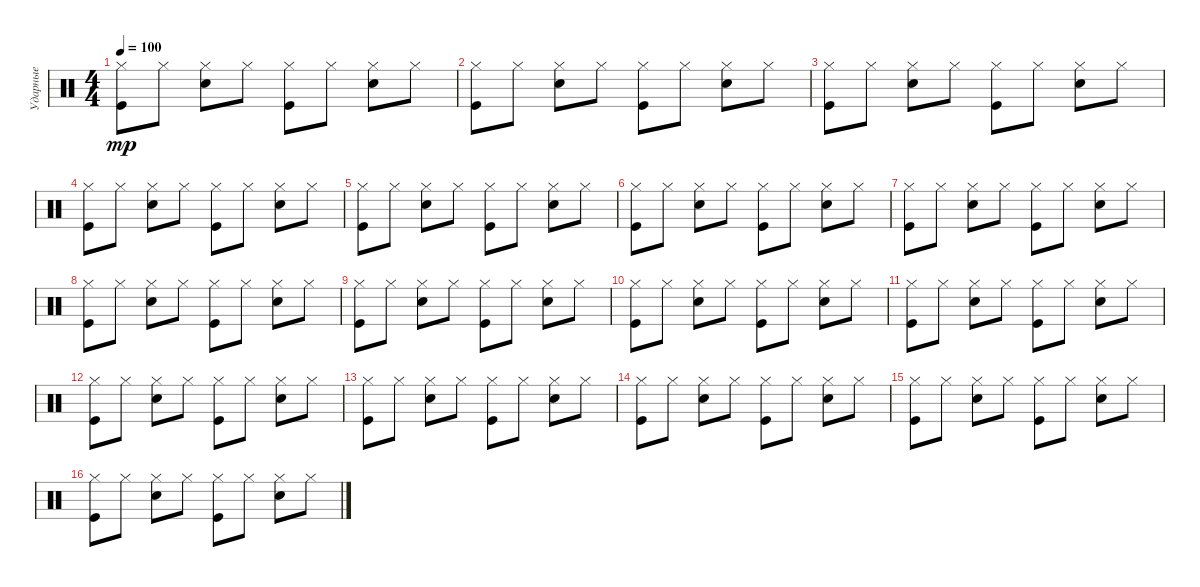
\track ("Ударные" "Ударные") {instrument percussion}
\staff {score}
\articulation defaults
\ts (4 4)
\tempo 100
\clef neutral
\ks c
("Hi-Hat (closed)" "Kick (hit)").8{dy mp} "Hi-Hat (closed)".8 ("Hi-Hat (closed)" "Snare (hit) 2").8 "Hi-Hat (closed)".8 ("Hi-Hat (closed)" "Kick (hit)").8 "Hi-Hat (closed)".8 ("Hi-Hat (closed)" "Snare (hit) 2").8 "Hi-Hat (closed)".8 |
("Hi-Hat (closed)" "Kick (hit)").8 "Hi-Hat (closed)".8 ("Hi-Hat (closed)" "Snare (hit) 2").8 "Hi-Hat (closed)".8 ("Hi-Hat (closed)" "Kick (hit)").8 "Hi-Hat (closed)".8 ("Hi-Hat (closed)" "Snare (hit) 2").8 "Hi-Hat (closed)".8 |
("Hi-Hat (closed)" "Kick (hit)").8 "Hi-Hat (closed)".8 ("Hi-Hat (closed)" "Snare (hit) 2").8 "Hi-Hat (closed)".8 ("Hi-Hat (closed)" "Kick (hit)").8 "Hi-Hat (closed)".8 ("Hi-Hat (closed)" "Snare (hit) 2").8 "Hi-Hat (closed)".8 |
("Hi-Hat (closed)" "Kick (hit)").8 "Hi-Hat (closed)".8 ("Hi-Hat (closed)" "Snare (hit) 2").8 "Hi-Hat (closed)".8 ("Hi-Hat (closed)" "Kick (hit)").8 "Hi-Hat (closed)".8 ("Hi-Hat (closed)" "Snare (hit) 2").8 "Hi-Hat (closed)".8 |
("Hi-Hat (closed)" "Kick (hit)").8 "Hi-Hat (closed)".8 ("Hi-Hat (closed)" "Snare (hit) 2").8 "Hi-Hat (closed)".8 ("Hi-Hat (closed)" "Kick (hit)").8 "Hi-Hat (closed)".8 ("Hi-Hat (closed)" "Snare (hit) 2").8 "Hi-Hat (closed)".8 |
("Hi-Hat (closed)" "Kick (hit)").8 "Hi-Hat (closed)".8 ("Hi-Hat (closed)" "Snare (hit) 2").8 "Hi-Hat (closed)".8 ("Hi-Hat (closed)" "Kick (hit)").8 "Hi-Hat (closed)".8 ("Hi-Hat (closed)" "Snare (hit) 2").8 "Hi-Hat (closed)".8 |
("Hi-Hat (closed)" "Kick (hit)").8 "Hi-Hat (closed)".8 ("Hi-Hat (closed)" "Snare (hit) 2").8 "Hi-Hat (closed)".8 ("Hi-Hat (closed)" "Kick (hit)").8 "Hi-Hat (closed)".8 ("Hi-Hat (closed)" "Snare (hit) 2").8 "Hi-Hat (closed)".8 |
("Hi-Hat (closed)" "Kick (hit)").8 "Hi-Hat (closed)".8 ("Hi-Hat (closed)" "Snare (hit) 2").8 "Hi-Hat (closed)".8 ("Hi-Hat (closed)" "Kick (hit)").8 "Hi-Hat (closed)".8 ("Hi-Hat (closed)" "Snare (hit) 2").8 "Hi-Hat (closed)".8 |
("Hi-Hat (closed)" "Kick (hit)").8 "Hi-Hat (closed)".8 ("Hi-Hat (closed)" "Snare (hit) 2").8 "Hi-Hat (closed)".8 ("Hi-Hat (closed)" "Kick (hit)").8 "Hi-Hat (closed)".8 ("Hi-Hat (closed)" "Snare (hit) 2").8 "Hi-Hat (closed)".8 |
("Hi-Hat (closed)" "Kick (hit)").8 "Hi-Hat (closed)".8 ("Hi-Hat (closed)" "Snare (hit) 2").8 "Hi-Hat (closed)".8 ("Hi-Hat (closed)" "Kick (hit)").8 "Hi-Hat (closed)".8 ("Hi-Hat (closed)" "Snare (hit) 2").8 "Hi-Hat (closed)".8 |
("Hi-Hat (closed)" "Kick (hit)").8 "Hi-Hat (closed)".8 ("Hi-Hat (closed)" "Snare (hit) 2").8 "Hi-Hat (closed)".8 ("Hi-Hat (closed)" "Kick (hit)").8 "Hi-Hat (closed)".8 ("Hi-Hat (closed)" "Snare (hit) 2").8 "Hi-Hat (closed)".8 |
("Hi-Hat (closed)" "Kick (hit)").8 "Hi-Hat (closed)".8 ("Hi-Hat (closed)" "Snare (hit) 2").8 "Hi-Hat (closed)".8 ("Hi-Hat (closed)" "Kick (hit)").8 "Hi-Hat (closed)".8 ("Hi-Hat (closed)" "Snare (hit) 2").8 "Hi-Hat (closed)".8 |
("Hi-Hat (closed)" "Kick (hit)").8 "Hi-Hat (closed)".8 ("Hi-Hat (closed)" "Snare (hit) 2").8 "Hi-Hat (closed)".8 ("Hi-Hat (closed)" "Kick (hit)").8 "Hi-Hat (closed)".8 ("Hi-Hat (closed)" "Snare (hit) 2").8 "Hi-Hat (closed)".8 |
("Hi-Hat (closed)" "Kick (hit)").8 "Hi-Hat (closed)".8 ("Hi-Hat (closed)" "Snare (hit) 2").8 "Hi-Hat (closed)".8 ("Hi-Hat (closed)" "Kick (hit)").8 "Hi-Hat (closed)".8 ("Hi-Hat (closed)" "Snare (hit) 2").8 "Hi-Hat (closed)".8 |
("Hi-Hat (closed)" "Kick (hit)").8 "Hi-Hat (closed)".8 ("Hi-Hat (closed)" "Snare (hit) 2").8 "Hi-Hat (closed)".8 ("Hi-Hat (closed)" "Kick (hit)").8 "Hi-Hat (closed)".8 ("Hi-Hat (closed)" "Snare (hit) 2").8 "Hi-Hat (closed)".8 |
("Hi-Hat (closed)" "Kick (hit)").8 "Hi-Hat (closed)".8 ("Hi-Hat (closed)" "Snare (hit) 2").8 "Hi-Hat (closed)".8 ("Hi-Hat (closed)" "Kick (hit)").8 "Hi-Hat (closed)".8 ("Hi-Hat (closed)" "Snare (hit) 2").8 "Hi-Hat (closed)".8
